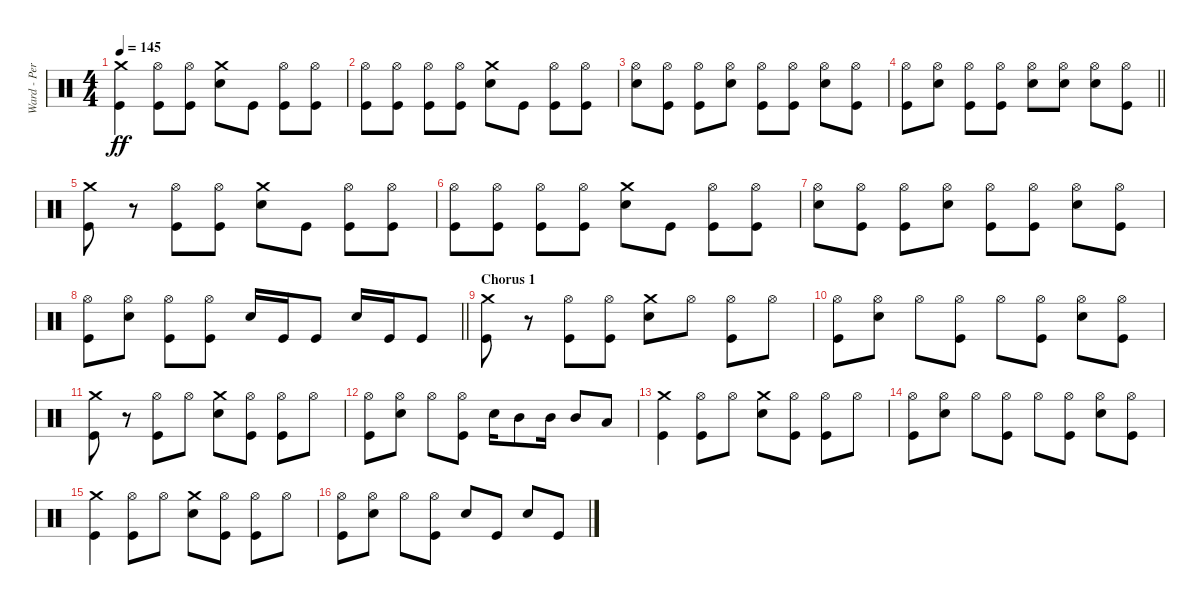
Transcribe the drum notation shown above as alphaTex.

\track ("Ward - Percussion" "Ward - Per") {instrument percussion}
\staff {score}
\articulation defaults
\ts (4 4)
\tempo 145
\clef neutral
\ks c
("Kick (hit)" "Crash medium (hit)").4{dy ff} ("Hi-Hat (open)" "Kick (hit)").8 ("Hi-Hat (open)" "Kick (hit)").8 ("Snare (hit) 2" "Crash medium (hit)").8 "Kick (hit)".8 ("Hi-Hat (open)" "Kick (hit)").8 ("Hi-Hat (open)" "Kick (hit)").8 |
("Hi-Hat (open)" "Kick (hit)").8 ("Hi-Hat (open)" "Kick (hit)").8 ("Kick (hit)" "Hi-Hat (open)").8 ("Hi-Hat (open)" "Kick (hit)").8 ("Snare (hit) 2" "Crash medium (hit)").8 "Kick (hit)".8 ("Hi-Hat (open)" "Kick (hit)").8 ("Hi-Hat (open)" "Kick (hit)").8 |
("Hi-Hat (open)" "Snare (hit) 2").8 ("Hi-Hat (open)" "Kick (hit)").8 ("Hi-Hat (open)" "Kick (hit)").8 ("Snare (hit) 2" "Hi-Hat (open)").8 ("Hi-Hat (open)" "Kick (hit)").8 ("Hi-Hat (open)" "Kick (hit)").8 ("Snare (hit) 2" "Hi-Hat (open)").8 ("Hi-Hat (open)" "Kick (hit)").8 |
\barLineRight lightlight
("Hi-Hat (open)" "Kick (hit)").8 ("Snare (hit) 2" "Hi-Hat (open)").8 ("Hi-Hat (open)" "Kick (hit)").8 ("Hi-Hat (open)" "Kick (hit)").8 ("Hi-Hat (open)" "Snare (hit) 2").8 ("Hi-Hat (open)" "Snare (hit) 2").8 ("Hi-Hat (open)" "Snare (hit) 2").8 ("Hi-Hat (open)" "Kick (hit)").8 |
("Kick (hit)" "Crash medium (hit)").8 r.8 ("Hi-Hat (open)" "Kick (hit)").8 ("Hi-Hat (open)" "Kick (hit)").8 ("Snare (hit) 2" "Crash medium (hit)").8 "Kick (hit)".8 ("Hi-Hat (open)" "Kick (hit)").8 ("Hi-Hat (open)" "Kick (hit)").8 |
("Hi-Hat (open)" "Kick (hit)").8 ("Hi-Hat (open)" "Kick (hit)").8 ("Kick (hit)" "Hi-Hat (open)").8 ("Hi-Hat (open)" "Kick (hit)").8 ("Snare (hit) 2" "Crash medium (hit)").8 "Kick (hit)".8 ("Hi-Hat (open)" "Kick (hit)").8 ("Hi-Hat (open)" "Kick (hit)").8 |
("Hi-Hat (open)" "Snare (hit) 2").8 ("Hi-Hat (open)" "Kick (hit)").8 ("Hi-Hat (open)" "Kick (hit)").8 ("Snare (hit) 2" "Hi-Hat (open)").8 ("Hi-Hat (open)" "Kick (hit)").8 ("Hi-Hat (open)" "Kick (hit)").8 ("Snare (hit) 2" "Hi-Hat (open)").8 ("Hi-Hat (open)" "Kick (hit)").8 |
\barLineRight lightlight
("Hi-Hat (open)" "Kick (hit)").8 ("Snare (hit) 2" "Hi-Hat (open)").8 ("Hi-Hat (open)" "Kick (hit)").8 ("Hi-Hat (open)" "Kick (hit)").8 "Snare (hit) 2".16 "Kick (hit)".16 "Kick (hit)".8 "Snare (hit) 2".16 "Kick (hit)".16 "Kick (hit)".8 |
\section ("" "Chorus 1")
("Crash medium (hit)" "Kick (hit)").8 r.8 ("Hi-Hat (open)" "Kick (hit)").8 ("Hi-Hat (open)" "Kick (hit)").8 ("Snare (hit) 2" "Crash medium (hit)").8 "Hi-Hat (open)".8 ("Hi-Hat (open)" "Kick (hit)").8 "Hi-Hat (open)".8 |
("Kick (hit)" "Hi-Hat (open)").8 ("Hi-Hat (open)" "Snare (hit) 2").8 "Hi-Hat (open)".8 ("Hi-Hat (open)" "Kick (hit)").8 "Hi-Hat (open)".8 ("Kick (hit)" "Hi-Hat (open)").8 ("Snare (hit) 2" "Hi-Hat (open)").8 ("Hi-Hat (open)" "Kick (hit)").8 |
("Crash medium (hit)" "Kick (hit)").8 r.8 ("Hi-Hat (open)" "Kick (hit)").8 "Hi-Hat (open)".8 ("Snare (hit) 2" "Crash medium (hit)").8 ("Kick (hit)" "Hi-Hat (open)").8 ("Hi-Hat (open)" "Kick (hit)").8 "Hi-Hat (open)".8 |
("Kick (hit)" "Hi-Hat (open)").8 ("Hi-Hat (open)" "Snare (hit) 2").8 "Hi-Hat (open)".8 ("Hi-Hat (open)" "Kick (hit)").8 "Snare (hit) 2".16 "Mid Tom (hit)".8 "Mid Tom (hit)".16 "Mid Tom (hit)".8 "Low Floor Tom (hit)".8 |
("Crash medium (hit)" "Kick (hit)").4 ("Hi-Hat (open)" "Kick (hit)").8 "Hi-Hat (open)".8 ("Snare (hit) 2" "Crash medium (hit)").8 ("Hi-Hat (open)" "Kick (hit)").8 ("Hi-Hat (open)" "Kick (hit)").8 "Hi-Hat (open)".8 |
("Kick (hit)" "Hi-Hat (open)").8 ("Hi-Hat (open)" "Snare (hit) 2").8 "Hi-Hat (open)".8 ("Hi-Hat (open)" "Kick (hit)").8 "Hi-Hat (open)".8 ("Kick (hit)" "Hi-Hat (open)").8 ("Snare (hit) 2" "Hi-Hat (open)").8 ("Hi-Hat (open)" "Kick (hit)").8 |
("Crash medium (hit)" "Kick (hit)").4 ("Hi-Hat (open)" "Kick (hit)").8 "Hi-Hat (open)".8 ("Snare (hit) 2" "Crash medium (hit)").8 ("Hi-Hat (open)" "Kick (hit)").8 ("Hi-Hat (open)" "Kick (hit)").8 "Hi-Hat (open)".8 |
("Kick (hit)" "Hi-Hat (open)").8 ("Hi-Hat (open)" "Snare (hit) 2").8 "Hi-Hat (open)".8 ("Hi-Hat (open)" "Kick (hit)").8 "Snare (hit) 2".8 "Kick (hit)".8 "Snare (hit) 2".8 "Kick (hit)".8
